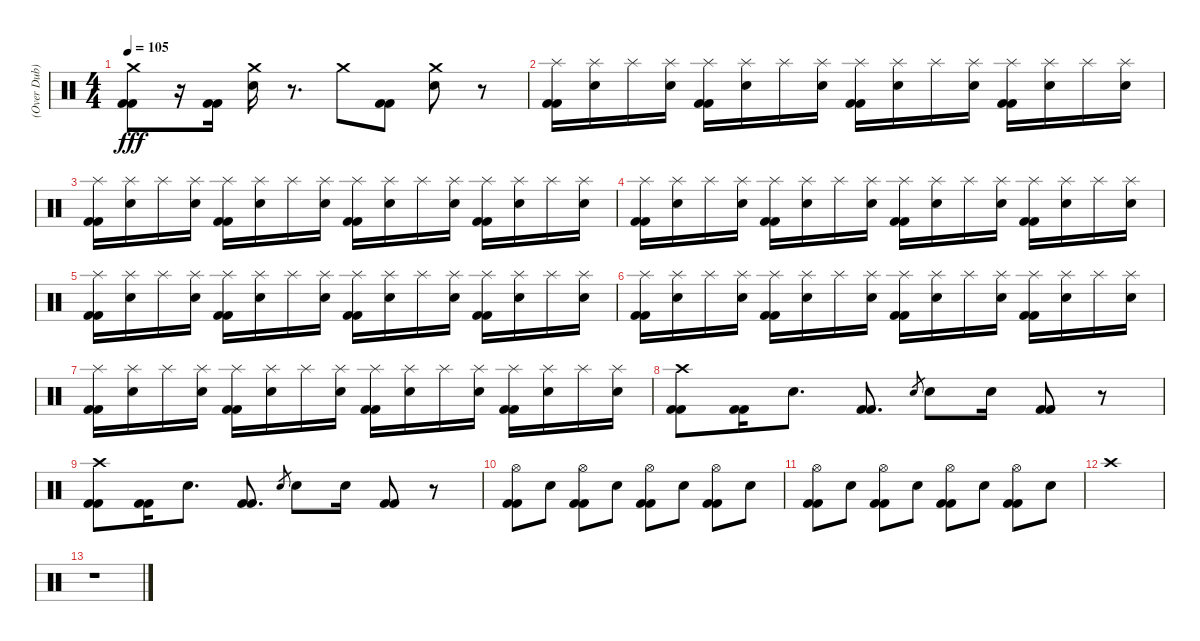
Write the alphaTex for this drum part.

\track ("(Over Dub)" "(Over Dub)") {instrument percussion}
\staff {score}
\articulation defaults
\ts (4 4)
\tempo 105
\clef neutral
\ks c
("Crash medium (hit)" "Kick (hit) 2" "Kick (hit) 2").8{dy fff} r.16 ("Kick (hit) 2" "Kick (hit) 2").16 ("Crash medium (hit)" "Electric Snare (hit)").16 r.8{d} "Crash medium (hit)".8 ("Kick (hit) 2" "Kick (hit) 2").8 ("Crash medium (hit)" "Electric Snare (hit)").8 r.8 |
("Splash (hit)" "Kick (hit) 2" "Kick (hit) 2").16 ("Splash (hit)" "Electric Snare (hit)").16 "Splash (hit)".16 ("Splash (hit)" "Electric Snare (hit)").16 ("Splash (hit)" "Kick (hit) 2" "Kick (hit) 2").16 ("Splash (hit)" "Electric Snare (hit)").16 "Splash (hit)".16 ("Splash (hit)" "Electric Snare (hit)").16 ("Splash (hit)" "Kick (hit) 2" "Kick (hit) 2").16 ("Splash (hit)" "Electric Snare (hit)").16 "Splash (hit)".16 ("Splash (hit)" "Electric Snare (hit)").16 ("Splash (hit)" "Kick (hit) 2" "Kick (hit) 2").16 ("Splash (hit)" "Electric Snare (hit)").16 "Splash (hit)".16 ("Splash (hit)" "Electric Snare (hit)").16 |
("Splash (hit)" "Kick (hit) 2" "Kick (hit) 2").16 ("Splash (hit)" "Electric Snare (hit)").16 "Splash (hit)".16 ("Splash (hit)" "Electric Snare (hit)").16 ("Splash (hit)" "Kick (hit) 2" "Kick (hit) 2").16 ("Splash (hit)" "Electric Snare (hit)").16 "Splash (hit)".16 ("Splash (hit)" "Electric Snare (hit)").16 ("Splash (hit)" "Kick (hit) 2" "Kick (hit) 2").16 ("Splash (hit)" "Electric Snare (hit)").16 "Splash (hit)".16 ("Splash (hit)" "Electric Snare (hit)").16 ("Splash (hit)" "Kick (hit) 2" "Kick (hit) 2").16 ("Splash (hit)" "Electric Snare (hit)").16 "Splash (hit)".16 ("Splash (hit)" "Electric Snare (hit)").16 |
("Splash (hit)" "Kick (hit) 2" "Kick (hit) 2").16 ("Splash (hit)" "Electric Snare (hit)").16 "Splash (hit)".16 ("Splash (hit)" "Electric Snare (hit)").16 ("Splash (hit)" "Kick (hit) 2" "Kick (hit) 2").16 ("Splash (hit)" "Electric Snare (hit)").16 "Splash (hit)".16 ("Splash (hit)" "Electric Snare (hit)").16 ("Splash (hit)" "Kick (hit) 2" "Kick (hit) 2").16 ("Splash (hit)" "Electric Snare (hit)").16 "Splash (hit)".16 ("Splash (hit)" "Electric Snare (hit)").16 ("Splash (hit)" "Kick (hit) 2" "Kick (hit) 2").16 ("Splash (hit)" "Electric Snare (hit)").16 "Splash (hit)".16 ("Splash (hit)" "Electric Snare (hit)").16 |
("Splash (hit)" "Kick (hit) 2" "Kick (hit) 2").16 ("Splash (hit)" "Electric Snare (hit)").16 "Splash (hit)".16 ("Splash (hit)" "Electric Snare (hit)").16 ("Splash (hit)" "Kick (hit) 2" "Kick (hit) 2").16 ("Splash (hit)" "Electric Snare (hit)").16 "Splash (hit)".16 ("Splash (hit)" "Electric Snare (hit)").16 ("Splash (hit)" "Kick (hit) 2" "Kick (hit) 2").16 ("Splash (hit)" "Electric Snare (hit)").16 "Splash (hit)".16 ("Splash (hit)" "Electric Snare (hit)").16 ("Splash (hit)" "Kick (hit) 2" "Kick (hit) 2").16 ("Splash (hit)" "Electric Snare (hit)").16 "Splash (hit)".16 ("Splash (hit)" "Electric Snare (hit)").16 |
("Splash (hit)" "Kick (hit) 2" "Kick (hit) 2").16 ("Splash (hit)" "Electric Snare (hit)").16 "Splash (hit)".16 ("Splash (hit)" "Electric Snare (hit)").16 ("Splash (hit)" "Kick (hit) 2" "Kick (hit) 2").16 ("Splash (hit)" "Electric Snare (hit)").16 "Splash (hit)".16 ("Splash (hit)" "Electric Snare (hit)").16 ("Splash (hit)" "Kick (hit) 2" "Kick (hit) 2").16 ("Splash (hit)" "Electric Snare (hit)").16 "Splash (hit)".16 ("Splash (hit)" "Electric Snare (hit)").16 ("Splash (hit)" "Kick (hit) 2" "Kick (hit) 2").16 ("Splash (hit)" "Electric Snare (hit)").16 "Splash (hit)".16 ("Splash (hit)" "Electric Snare (hit)").16 |
("Splash (hit)" "Kick (hit) 2" "Kick (hit) 2").16 ("Splash (hit)" "Electric Snare (hit)").16 "Splash (hit)".16 ("Splash (hit)" "Electric Snare (hit)").16 ("Splash (hit)" "Kick (hit) 2" "Kick (hit) 2").16 ("Splash (hit)" "Electric Snare (hit)").16 "Splash (hit)".16 ("Splash (hit)" "Electric Snare (hit)").16 ("Splash (hit)" "Kick (hit) 2" "Kick (hit) 2").16 ("Splash (hit)" "Electric Snare (hit)").16 "Splash (hit)".16 ("Splash (hit)" "Electric Snare (hit)").16 ("Splash (hit)" "Kick (hit) 2" "Kick (hit) 2").16 ("Splash (hit)" "Electric Snare (hit)").16 "Splash (hit)".16 ("Splash (hit)" "Electric Snare (hit)").16 |
("Crash high (hit)" "Kick (hit) 2" "Kick (hit) 2").8 ("Kick (hit) 2" "Kick (hit) 2").16 "Electric Snare (hit)".8{d} ("Kick (hit) 2" "Kick (hit) 2").8{d} "Electric Snare (hit)".8{gr} "Electric Snare (hit)".8 "Electric Snare (hit)".16 ("Kick (hit) 2" "Kick (hit) 2").8 r.8 |
("Crash high (hit)" "Kick (hit) 2" "Kick (hit) 2").8 ("Kick (hit) 2" "Kick (hit) 2").16 "Electric Snare (hit)".8{d} ("Kick (hit) 2" "Kick (hit) 2").8{d} "Electric Snare (hit)".8{gr} "Electric Snare (hit)".8 "Electric Snare (hit)".16 ("Kick (hit) 2" "Kick (hit) 2").8 r.8 |
("Hi-Hat (open)" "Kick (hit) 2" "Kick (hit) 2").8 "Electric Snare (hit)".8 ("Hi-Hat (open)" "Kick (hit) 2" "Kick (hit) 2").8 "Electric Snare (hit)".8 ("Hi-Hat (open)" "Kick (hit) 2" "Kick (hit) 2").8 "Electric Snare (hit)".8 ("Hi-Hat (open)" "Kick (hit) 2" "Kick (hit) 2").8 "Electric Snare (hit)".8 |
("Hi-Hat (open)" "Kick (hit) 2" "Kick (hit) 2").8 "Electric Snare (hit)".8 ("Hi-Hat (open)" "Kick (hit) 2" "Kick (hit) 2").8 "Electric Snare (hit)".8 ("Hi-Hat (open)" "Kick (hit) 2" "Kick (hit) 2").8 "Electric Snare (hit)".8 ("Hi-Hat (open)" "Kick (hit) 2" "Kick (hit) 2").8 "Electric Snare (hit)".8 |
"Crash high (hit)".1 |
r.1
